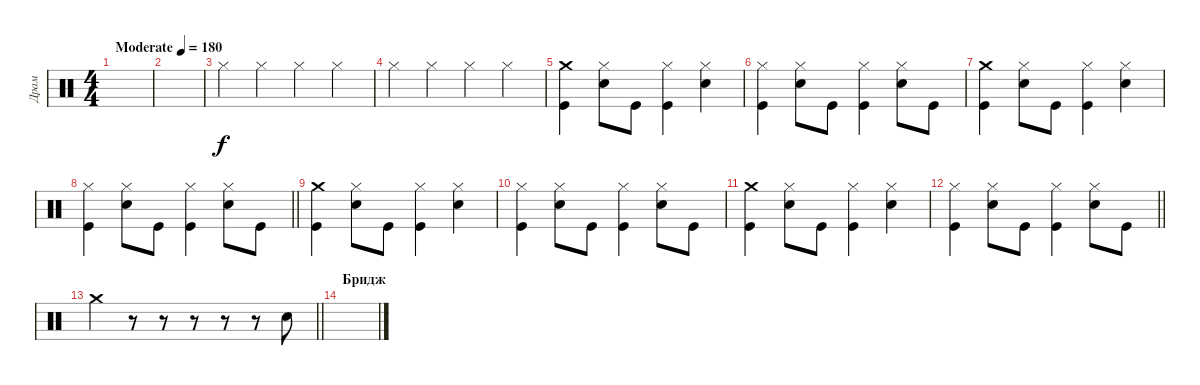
\track ("Драм" "Драм") {instrument percussion}
\staff {score}
\articulation defaults
\ts (4 4)
\tempo (180 "Moderate")
\clef neutral
\ks c
|
|
"Hi-Hat (closed)".4 "Hi-Hat (closed)".4 "Hi-Hat (closed)".4 "Hi-Hat (closed)".4 |
"Hi-Hat (closed)".4 "Hi-Hat (closed)".4 "Hi-Hat (closed)".4 "Hi-Hat (closed)".4 |
("Kick (hit)" "Crash medium (hit)").4 ("Electric Snare (hit)" "Hi-Hat (closed)").8 "Kick (hit)".8 ("Kick (hit)" "Hi-Hat (closed)").4 ("Electric Snare (hit)" "Hi-Hat (closed)").4 |
("Kick (hit)" "Hi-Hat (closed)").4 ("Electric Snare (hit)" "Hi-Hat (closed)").8 "Kick (hit)".8 ("Kick (hit)" "Hi-Hat (closed)").4 ("Electric Snare (hit)" "Hi-Hat (closed)").8 "Kick (hit)".8 |
("Kick (hit)" "Crash medium (hit)").4 ("Electric Snare (hit)" "Hi-Hat (closed)").8 "Kick (hit)".8 ("Kick (hit)" "Hi-Hat (closed)").4 ("Electric Snare (hit)" "Hi-Hat (closed)").4 |
\barLineRight lightlight
("Kick (hit)" "Hi-Hat (closed)").4 ("Electric Snare (hit)" "Hi-Hat (closed)").8 "Kick (hit)".8 ("Kick (hit)" "Hi-Hat (closed)").4 ("Electric Snare (hit)" "Hi-Hat (closed)").8 "Kick (hit)".8 |
("Kick (hit)" "Crash medium (hit)").4 ("Electric Snare (hit)" "Hi-Hat (closed)").8 "Kick (hit)".8 ("Kick (hit)" "Hi-Hat (closed)").4 ("Electric Snare (hit)" "Hi-Hat (closed)").4 |
("Kick (hit)" "Hi-Hat (closed)").4 ("Electric Snare (hit)" "Hi-Hat (closed)").8 "Kick (hit)".8 ("Kick (hit)" "Hi-Hat (closed)").4 ("Electric Snare (hit)" "Hi-Hat (closed)").8 "Kick (hit)".8 |
("Kick (hit)" "Crash medium (hit)").4 ("Electric Snare (hit)" "Hi-Hat (closed)").8 "Kick (hit)".8 ("Kick (hit)" "Hi-Hat (closed)").4 ("Electric Snare (hit)" "Hi-Hat (closed)").4 |
\barLineRight lightlight
("Kick (hit)" "Hi-Hat (closed)").4 ("Electric Snare (hit)" "Hi-Hat (closed)").8 "Kick (hit)".8 ("Kick (hit)" "Hi-Hat (closed)").4 ("Electric Snare (hit)" "Hi-Hat (closed)").8 "Kick (hit)".8 |
\barLineRight lightlight "Crash medium (hit)".4
r.8 r.8 r.8 r.8 r.8 "Electric Snare (hit)".8 |
\section ("" "Бридж")
